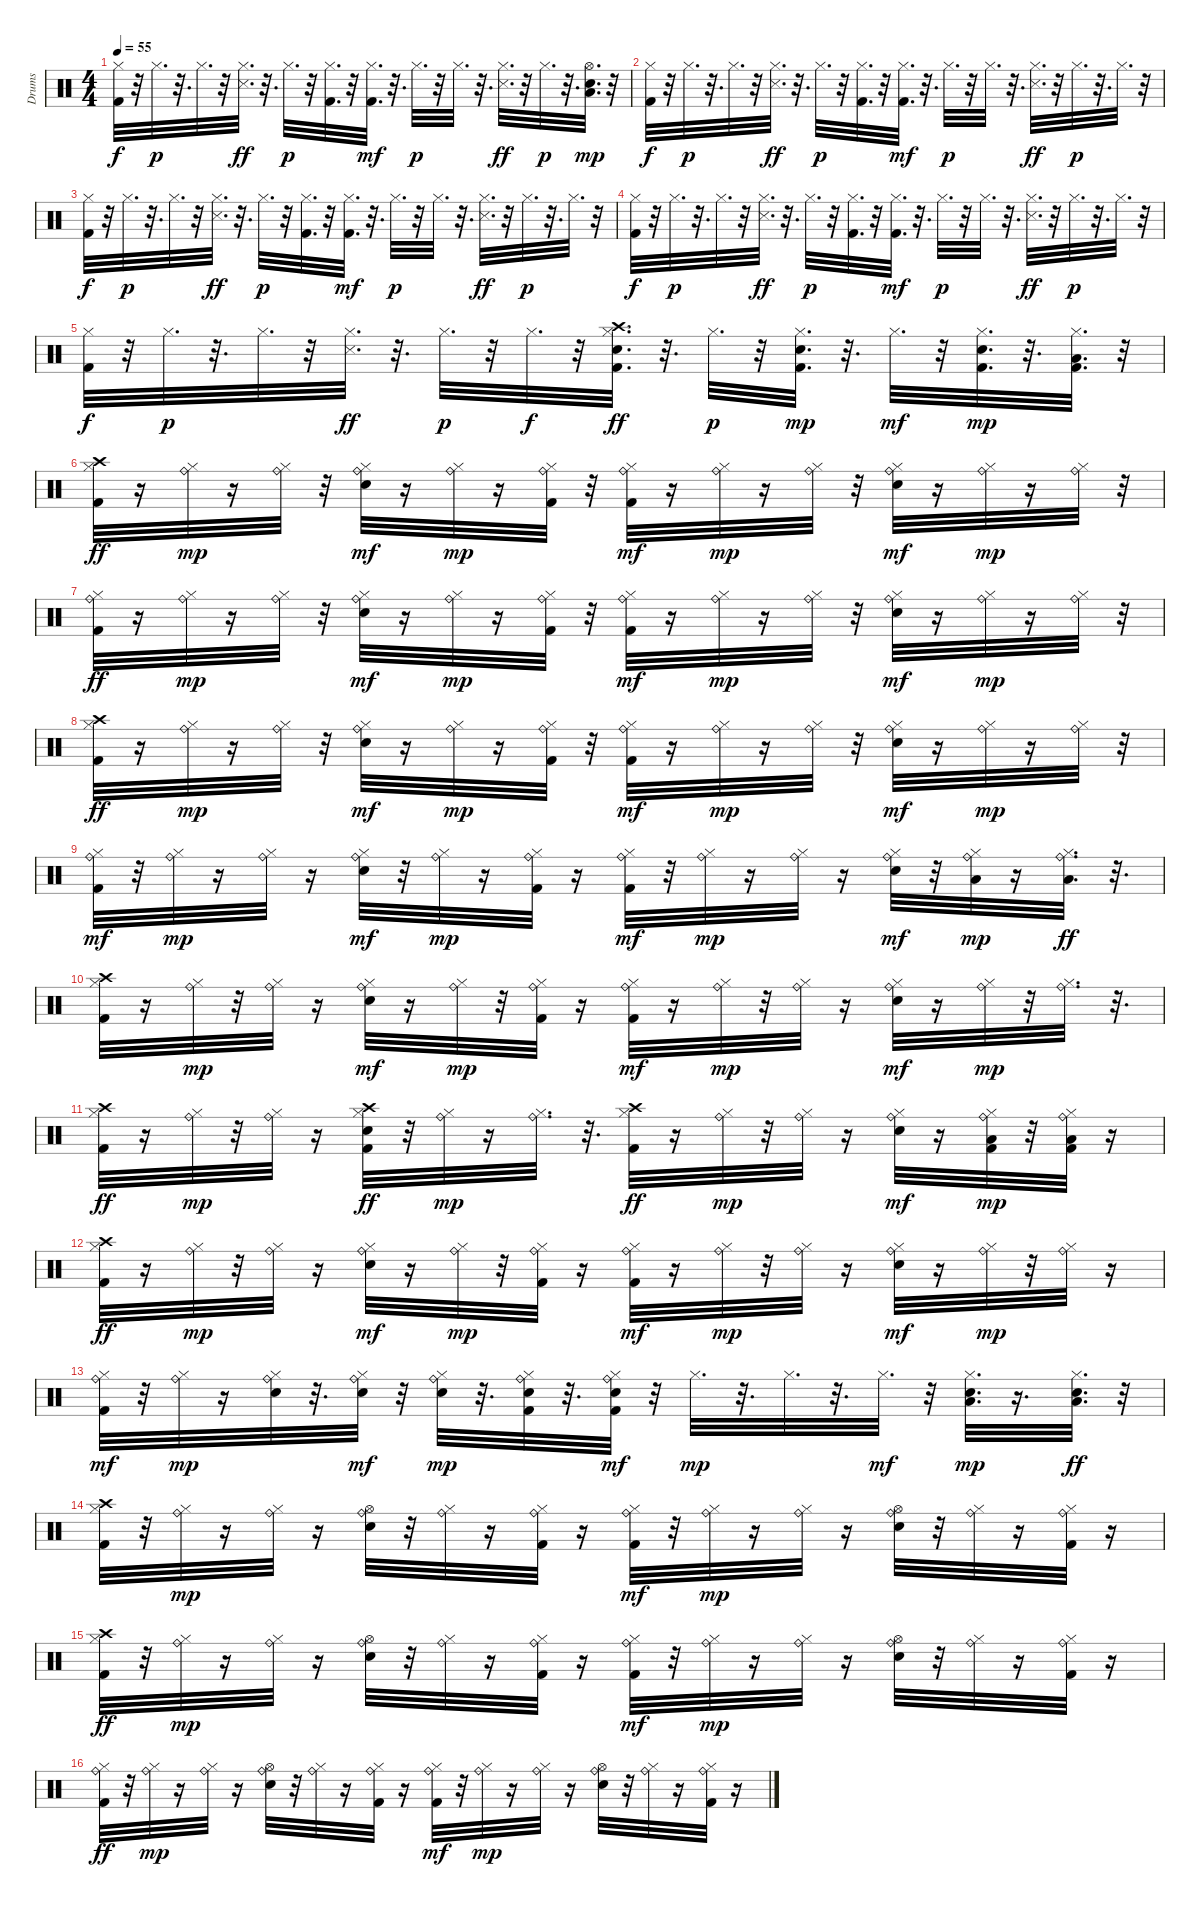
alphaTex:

\track ("Drums" "Drums") {instrument percussion}
\staff {score}
\articulation defaults
\ts (4 4)
\tempo 55
\clef neutral
\ks c
("Kick (hit) 2" "Hi-Hat (closed)").32{dy f} r.32 "Hi-Hat (closed)".32{d dy p} r.32{d} "Hi-Hat (closed)".32{d} r.32 ("Hi-Hat (closed)" "Snare (side stick) 3").32{d dy ff} r.32{d} "Hi-Hat (closed)".32{d dy p} r.32 ("Kick (hit) 2" "Hi-Hat (closed)").32{d} r.32 ("Kick (hit) 2" "Hi-Hat (closed)").32{d dy mf} r.32{d} "Hi-Hat (closed)".32{d dy p} r.32 "Hi-Hat (closed)".32{d} r.32{d} ("Hi-Hat (closed)" "Snare (side stick) 3").32{d dy ff} r.32 "Hi-Hat (closed)".32{d dy p} r.32{d} ("Snare (hit) 2" "Hi-Hat (open)" "Low Floor Tom (hit)").32{d dy mp} r.32 |
("Kick (hit) 2" "Hi-Hat (closed)").32{dy f} r.32 "Hi-Hat (closed)".32{d dy p} r.32{d} "Hi-Hat (closed)".32{d} r.32 ("Hi-Hat (closed)" "Snare (side stick) 3").32{d dy ff} r.32{d} "Hi-Hat (closed)".32{d dy p} r.32 ("Kick (hit) 2" "Hi-Hat (closed)").32{d} r.32 ("Kick (hit) 2" "Hi-Hat (closed)").32{d dy mf} r.32{d} "Hi-Hat (closed)".32{d dy p} r.32 "Hi-Hat (closed)".32{d} r.32{d} ("Hi-Hat (closed)" "Snare (side stick) 3").32{d dy ff} r.32 "Hi-Hat (closed)".32{d dy p} r.32{d} "Hi-Hat (closed)".32{d} r.32 |
("Kick (hit) 2" "Hi-Hat (closed)").32{dy f} r.32 "Hi-Hat (closed)".32{d dy p} r.32{d} "Hi-Hat (closed)".32{d} r.32 ("Hi-Hat (closed)" "Snare (side stick) 3").32{d dy ff} r.32{d} "Hi-Hat (closed)".32{d dy p} r.32 ("Kick (hit) 2" "Hi-Hat (closed)").32{d} r.32 ("Kick (hit) 2" "Hi-Hat (closed)").32{d dy mf} r.32{d} "Hi-Hat (closed)".32{d dy p} r.32 "Hi-Hat (closed)".32{d} r.32{d} ("Hi-Hat (closed)" "Snare (side stick) 3").32{d dy ff} r.32 "Hi-Hat (closed)".32{d dy p} r.32{d} "Hi-Hat (closed)".32{d} r.32 |
("Kick (hit) 2" "Hi-Hat (closed)").32{dy f} r.32 "Hi-Hat (closed)".32{d dy p} r.32{d} "Hi-Hat (closed)".32{d} r.32 ("Hi-Hat (closed)" "Snare (side stick) 3").32{d dy ff} r.32{d} "Hi-Hat (closed)".32{d dy p} r.32 ("Kick (hit) 2" "Hi-Hat (closed)").32{d} r.32 ("Kick (hit) 2" "Hi-Hat (closed)").32{d dy mf} r.32{d} "Hi-Hat (closed)".32{d dy p} r.32 "Hi-Hat (closed)".32{d} r.32{d} ("Hi-Hat (closed)" "Snare (side stick) 3").32{d dy ff} r.32 "Hi-Hat (closed)".32{d dy p} r.32{d} "Hi-Hat (closed)".32{d} r.32 |
("Kick (hit) 2" "Hi-Hat (closed)").32{dy f} r.32 "Hi-Hat (closed)".32{d dy p} r.32{d} "Hi-Hat (closed)".32{d} r.32 ("Hi-Hat (closed)" "Snare (side stick) 3").32{d dy ff} r.32{d} "Hi-Hat (closed)".32{d dy p} r.32 "Hi-Hat (closed)".32{d dy f} r.32 ("Kick (hit) 2" "Snare (hit) 2" "Hi-Hat (closed)" "Crash high (hit)").32{d dy ff} r.32{d} "Hi-Hat (closed)".32{d dy p} r.32 ("Kick (hit) 2" "Snare (hit) 2" "Hi-Hat (closed)").32{d dy mp} r.32{d} "Hi-Hat (closed)".32{d dy mf} r.32 ("Kick (hit) 2" "Snare (hit) 2" "Hi-Hat (closed)").32{d dy mp} r.32{d} ("Kick (hit) 2" "Hi-Hat (closed)" "Low Floor Tom (hit)").32{d} r.32 |
("Kick (hit) 2" "Hi-Hat (closed)" "Crash high (hit)").32{dy ff} r.16 ("Ride (bell)" "Hi-Hat (closed)").32{dy mp} r.16 ("Ride (bell)" "Hi-Hat (closed)").32 r.32 ("Ride (bell)" "Snare (hit) 2" "Hi-Hat (closed)").32{dy mf} r.16 ("Ride (bell)" "Hi-Hat (closed)").32{dy mp} r.16 ("Ride (bell)" "Kick (hit) 2" "Hi-Hat (closed)").32 r.32 ("Ride (bell)" "Kick (hit) 2" "Hi-Hat (closed)").32{dy mf} r.16 ("Ride (bell)" "Hi-Hat (closed)").32{dy mp} r.16 ("Ride (bell)" "Hi-Hat (closed)").32 r.32 ("Ride (bell)" "Snare (hit) 2" "Hi-Hat (closed)").32{dy mf} r.16 ("Ride (bell)" "Hi-Hat (closed)").32{dy mp} r.16 ("Ride (bell)" "Hi-Hat (closed)").32 r.32 |
("Kick (hit) 2" "Hi-Hat (closed)" "Ride (bell)").32{dy ff} r.16 ("Ride (bell)" "Hi-Hat (closed)").32{dy mp} r.16 ("Ride (bell)" "Hi-Hat (closed)").32 r.32 ("Ride (bell)" "Snare (hit) 2" "Hi-Hat (closed)").32{dy mf} r.16 ("Ride (bell)" "Hi-Hat (closed)").32{dy mp} r.16 ("Ride (bell)" "Kick (hit) 2" "Hi-Hat (closed)").32 r.32 ("Ride (bell)" "Kick (hit) 2" "Hi-Hat (closed)").32{dy mf} r.16 ("Ride (bell)" "Hi-Hat (closed)").32{dy mp} r.16 ("Ride (bell)" "Hi-Hat (closed)").32 r.32 ("Ride (bell)" "Snare (hit) 2" "Hi-Hat (closed)").32{dy mf} r.16 ("Ride (bell)" "Hi-Hat (closed)").32{dy mp} r.16 ("Ride (bell)" "Hi-Hat (closed)").32 r.32 |
("Kick (hit) 2" "Hi-Hat (closed)" "Crash high (hit)").32{dy ff} r.16 ("Ride (bell)" "Hi-Hat (closed)").32{dy mp} r.16 ("Ride (bell)" "Hi-Hat (closed)").32 r.32 ("Ride (bell)" "Snare (hit) 2" "Hi-Hat (closed)").32{dy mf} r.16 ("Ride (bell)" "Hi-Hat (closed)").32{dy mp} r.16 ("Ride (bell)" "Kick (hit) 2" "Hi-Hat (closed)").32 r.32 ("Ride (bell)" "Kick (hit) 2" "Hi-Hat (closed)").32{dy mf} r.16 ("Ride (bell)" "Hi-Hat (closed)").32{dy mp} r.16 ("Ride (bell)" "Hi-Hat (closed)").32 r.32 ("Ride (bell)" "Snare (hit) 2" "Hi-Hat (closed)").32{dy mf} r.16 ("Ride (bell)" "Hi-Hat (closed)").32{dy mp} r.16 ("Ride (bell)" "Hi-Hat (closed)").32 r.32 |
("Ride (bell)" "Kick (hit) 2" "Hi-Hat (closed)").32{dy mf} r.32 ("Ride (bell)" "Hi-Hat (closed)").32{dy mp} r.16 ("Ride (bell)" "Hi-Hat (closed)").32 r.16 ("Ride (bell)" "Snare (hit) 2" "Hi-Hat (closed)").32{dy mf} r.32 ("Ride (bell)" "Hi-Hat (closed)").32{dy mp} r.16 ("Ride (bell)" "Kick (hit) 2" "Hi-Hat (closed)").32 r.16 ("Ride (bell)" "Kick (hit) 2" "Hi-Hat (closed)").32{dy mf} r.32 ("Ride (bell)" "Hi-Hat (closed)").32{dy mp} r.16 ("Ride (bell)" "Hi-Hat (closed)").32 r.16 ("Ride (bell)" "Snare (hit) 2" "Hi-Hat (closed)").32{dy mf} r.32 ("Ride (bell)" "Hi-Hat (closed)" "Low Floor Tom (hit)").32{dy mp} r.16 ("Ride (bell)" "Hi-Hat (closed)" "Low Floor Tom (hit)").32{d dy ff} r.32{d} |
("Kick (hit) 2" "Hi-Hat (closed)" "Crash high (hit)").32 r.16 ("Ride (bell)" "Hi-Hat (closed)").32{dy mp} r.32 ("Ride (bell)" "Hi-Hat (closed)").32 r.16 ("Ride (bell)" "Snare (hit) 2" "Hi-Hat (closed)").32{dy mf} r.16 ("Ride (bell)" "Hi-Hat (closed)").32{dy mp} r.32 ("Ride (bell)" "Kick (hit) 2" "Hi-Hat (closed)").32 r.16 ("Ride (bell)" "Kick (hit) 2" "Hi-Hat (closed)").32{dy mf} r.16 ("Ride (bell)" "Hi-Hat (closed)").32{dy mp} r.32 ("Ride (bell)" "Hi-Hat (closed)").32 r.16 ("Ride (bell)" "Snare (hit) 2" "Hi-Hat (closed)").32{dy mf} r.16 ("Ride (bell)" "Hi-Hat (closed)").32{dy mp} r.32 ("Ride (bell)" "Hi-Hat (closed)").32{d} r.32{d} |
("Kick (hit) 2" "Hi-Hat (closed)" "Crash high (hit)").32{dy ff} r.16 ("Ride (bell)" "Hi-Hat (closed)").32{dy mp} r.32 ("Ride (bell)" "Hi-Hat (closed)").32 r.16 ("Kick (hit) 2" "Snare (hit) 2" "Hi-Hat (closed)" "Crash high (hit)").32{dy ff} r.32 ("Ride (bell)" "Hi-Hat (closed)").32{dy mp} r.16 ("Ride (bell)" "Hi-Hat (closed)").32{d} r.32{d} ("Kick (hit) 2" "Hi-Hat (closed)" "Crash high (hit)").32{dy ff} r.16 ("Ride (bell)" "Hi-Hat (closed)").32{dy mp} r.32 ("Ride (bell)" "Hi-Hat (closed)").32 r.16 ("Ride (bell)" "Snare (hit) 2" "Hi-Hat (closed)").32{dy mf} r.16 ("Ride (bell)" "Kick (hit) 2" "Low Floor Tom (hit)" "Hi-Hat (closed)").32{dy mp} r.32 ("Ride (bell)" "Kick (hit) 2" "Low Floor Tom (hit)" "Hi-Hat (closed)").32 r.16 |
("Kick (hit) 2" "Hi-Hat (closed)" "Crash high (hit)").32{dy ff} r.16 ("Ride (bell)" "Hi-Hat (closed)").32{dy mp} r.32 ("Ride (bell)" "Hi-Hat (closed)").32 r.16 ("Ride (bell)" "Snare (hit) 2" "Hi-Hat (closed)").32{dy mf} r.16 ("Ride (bell)" "Hi-Hat (closed)").32{dy mp} r.32 ("Ride (bell)" "Kick (hit) 2" "Hi-Hat (closed)").32 r.16 ("Ride (bell)" "Kick (hit) 2" "Hi-Hat (closed)").32{dy mf} r.16 ("Ride (bell)" "Hi-Hat (closed)").32{dy mp} r.32 ("Ride (bell)" "Hi-Hat (closed)").32 r.16 ("Ride (bell)" "Snare (hit) 2" "Hi-Hat (closed)").32{dy mf} r.16 ("Ride (bell)" "Hi-Hat (closed)").32{dy mp} r.32 ("Ride (bell)" "Hi-Hat (closed)").32 r.16 |
("Ride (bell)" "Kick (hit) 2" "Hi-Hat (closed)").32{dy mf} r.32 ("Ride (bell)" "Hi-Hat (closed)").32{dy mp} r.16 ("Ride (bell)" "Snare (hit) 2" "Hi-Hat (closed)").32 r.32{d} ("Ride (bell)" "Snare (hit) 2" "Hi-Hat (closed)").32{dy mf} r.32 ("Ride (bell)" "Snare (hit) 2" "Hi-Hat (closed)").32{dy mp} r.32{d} ("Ride (bell)" "Kick (hit) 2" "Snare (hit) 2" "Hi-Hat (closed)").32 r.32{d} ("Ride (bell)" "Kick (hit) 2" "Snare (hit) 2" "Hi-Hat (closed)").32{dy mf} r.32 "Hi-Hat (closed)".32{d dy mp} r.32{d} "Hi-Hat (closed)".32{d} r.32{d} "Hi-Hat (closed)".32{d dy mf} r.32 ("Snare (hit) 2" "Hi-Hat (closed)" "Low Floor Tom (hit)").32{d dy mp} r.16{d} ("Snare (hit) 2" "Hi-Hat (closed)" "Low Floor Tom (hit)").32{d dy ff} r.32 |
("Kick (hit) 2" "Hi-Hat (closed)" "Crash high (hit)").32 r.32 ("Ride (bell)" "Hi-Hat (closed)").32{dy mp} r.16 ("Ride (bell)" "Hi-Hat (closed)").32 r.16 ("Ride (bell)" "Snare (hit) 2" "Hi-Hat (open)").32 r.32 ("Ride (bell)" "Hi-Hat (closed)").32 r.16 ("Ride (bell)" "Kick (hit) 2" "Hi-Hat (closed)").32 r.16 ("Ride (bell)" "Kick (hit) 2" "Hi-Hat (closed)").32{dy mf} r.32 ("Ride (bell)" "Hi-Hat (closed)").32{dy mp} r.16 ("Ride (bell)" "Hi-Hat (closed)").32 r.16 ("Ride (bell)" "Snare (hit) 2" "Hi-Hat (open)").32 r.32 ("Ride (bell)" "Hi-Hat (closed)").32 r.16 ("Ride (bell)" "Kick (hit) 2" "Hi-Hat (closed)").32 r.16 |
("Kick (hit) 2" "Hi-Hat (closed)" "Crash high (hit)").32{dy ff} r.32 ("Ride (bell)" "Hi-Hat (closed)").32{dy mp} r.16 ("Ride (bell)" "Hi-Hat (closed)").32 r.16 ("Ride (bell)" "Snare (hit) 2" "Hi-Hat (open)").32 r.32 ("Ride (bell)" "Hi-Hat (closed)").32 r.16 ("Ride (bell)" "Kick (hit) 2" "Hi-Hat (closed)").32 r.16 ("Ride (bell)" "Kick (hit) 2" "Hi-Hat (closed)").32{dy mf} r.32 ("Ride (bell)" "Hi-Hat (closed)").32{dy mp} r.16 ("Ride (bell)" "Hi-Hat (closed)").32 r.16 ("Ride (bell)" "Snare (hit) 2" "Hi-Hat (open)").32 r.32 ("Ride (bell)" "Hi-Hat (closed)").32 r.16 ("Ride (bell)" "Kick (hit) 2" "Hi-Hat (closed)").32 r.16 |
("Kick (hit) 2" "Hi-Hat (closed)" "Ride (bell)").32{dy ff} r.32 ("Ride (bell)" "Hi-Hat (closed)").32{dy mp} r.16 ("Ride (bell)" "Hi-Hat (closed)").32 r.16 ("Ride (bell)" "Snare (hit) 2" "Hi-Hat (open)").32 r.32 ("Ride (bell)" "Hi-Hat (closed)").32 r.16 ("Ride (bell)" "Kick (hit) 2" "Hi-Hat (closed)").32 r.16 ("Ride (bell)" "Kick (hit) 2" "Hi-Hat (closed)").32{dy mf} r.32 ("Ride (bell)" "Hi-Hat (closed)").32{dy mp} r.16 ("Ride (bell)" "Hi-Hat (closed)").32 r.16 ("Ride (bell)" "Snare (hit) 2" "Hi-Hat (open)").32 r.32 ("Ride (bell)" "Hi-Hat (closed)").32 r.16 ("Ride (bell)" "Kick (hit) 2" "Hi-Hat (closed)").32 r.16
